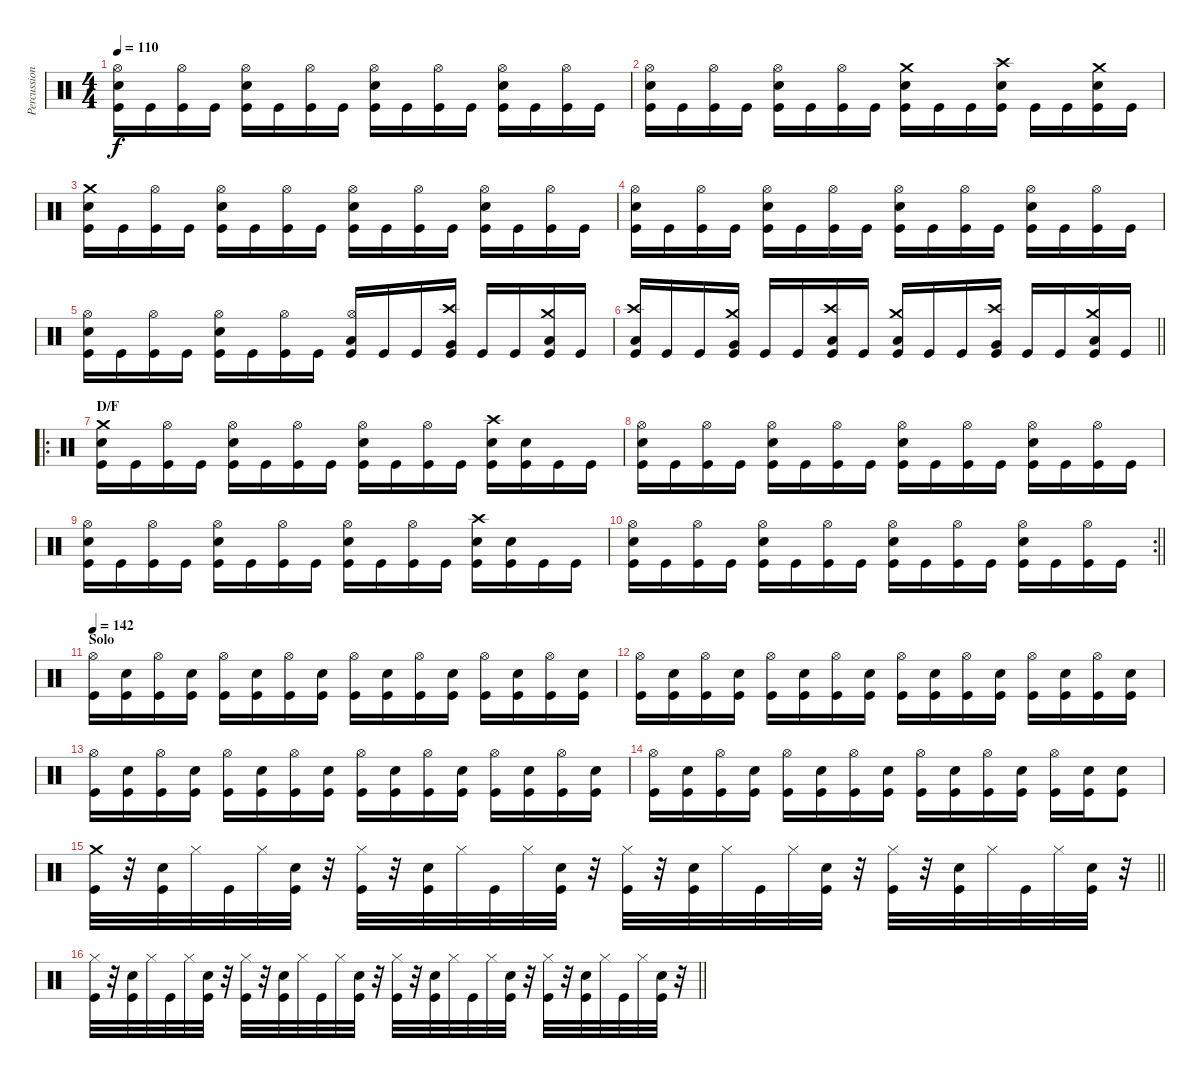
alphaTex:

\track ("Percussion" "Percussion") {instrument percussion}
\staff {score}
\articulation defaults
\ts (4 4)
\tempo 110
\clef neutral
\ks c
("Kick (hit)" "Hi-Hat (open)" "Snare (hit) 2").16{dy f} "Kick (hit)".16 ("Kick (hit)" "Hi-Hat (open)").16 "Kick (hit)".16 ("Kick (hit)" "Hi-Hat (open)" "Snare (hit) 2").16 "Kick (hit)".16 ("Kick (hit)" "Hi-Hat (open)").16 "Kick (hit)".16 ("Kick (hit)" "Hi-Hat (open)" "Snare (hit) 2").16 "Kick (hit)".16 ("Kick (hit)" "Hi-Hat (open)").16 "Kick (hit)".16 ("Kick (hit)" "Hi-Hat (open)" "Snare (hit) 2").16 "Kick (hit)".16 ("Kick (hit)" "Hi-Hat (open)").16 "Kick (hit)".16 |
("Kick (hit)" "Hi-Hat (open)" "Snare (hit) 2").16 "Kick (hit)".16 ("Kick (hit)" "Hi-Hat (open)").16 "Kick (hit)".16 ("Kick (hit)" "Hi-Hat (open)" "Snare (hit) 2").16 "Kick (hit)".16 ("Kick (hit)" "Hi-Hat (open)").16 "Kick (hit)".16 ("Kick (hit)" "Crash medium (hit)" "Snare (hit) 2").16 "Kick (hit)".16 "Kick (hit)".16 ("Kick (hit)" "Crash high (hit)" "Snare (hit) 2").16 "Kick (hit)".16 "Kick (hit)".16 ("Kick (hit)" "Crash medium (hit)" "Snare (hit) 2").16 "Kick (hit)".16 |
("Kick (hit)" "Crash medium (hit)" "Snare (hit) 2").16 "Kick (hit)".16 ("Kick (hit)" "Hi-Hat (open)").16 "Kick (hit)".16 ("Kick (hit)" "Hi-Hat (open)" "Snare (hit) 2").16 "Kick (hit)".16 ("Kick (hit)" "Hi-Hat (open)").16 "Kick (hit)".16 ("Kick (hit)" "Hi-Hat (open)" "Snare (hit) 2").16 "Kick (hit)".16 ("Kick (hit)" "Hi-Hat (open)").16 "Kick (hit)".16 ("Kick (hit)" "Hi-Hat (open)" "Snare (hit) 2").16 "Kick (hit)".16 ("Kick (hit)" "Hi-Hat (open)").16 "Kick (hit)".16 |
("Kick (hit)" "Hi-Hat (open)" "Snare (hit) 2").16 "Kick (hit)".16 ("Kick (hit)" "Hi-Hat (open)").16 "Kick (hit)".16 ("Kick (hit)" "Hi-Hat (open)" "Snare (hit) 2").16 "Kick (hit)".16 ("Kick (hit)" "Hi-Hat (open)").16 "Kick (hit)".16 ("Kick (hit)" "Hi-Hat (open)" "Snare (hit) 2").16 "Kick (hit)".16 ("Kick (hit)" "Hi-Hat (open)").16 "Kick (hit)".16 ("Kick (hit)" "Hi-Hat (open)" "Snare (hit) 2").16 "Kick (hit)".16 ("Kick (hit)" "Hi-Hat (open)").16 "Kick (hit)".16 |
("Kick (hit)" "Hi-Hat (open)" "Snare (hit) 2").16 "Kick (hit)".16 ("Kick (hit)" "Hi-Hat (open)").16 "Kick (hit)".16 ("Kick (hit)" "Hi-Hat (open)" "Snare (hit) 2").16 "Kick (hit)".16 ("Kick (hit)" "Hi-Hat (open)").16 "Kick (hit)".16 ("Kick (hit)" "Hi-Hat (open)" "Low Tom (hit)").16 "Kick (hit)".16 "Kick (hit)".16 ("Kick (hit)" "Crash high (hit)" "Very Low Tom (hit)").16 "Kick (hit)".16 "Kick (hit)".16 ("Kick (hit)" "Crash medium (hit)" "Low Floor Tom (hit)").16 "Kick (hit)".16 |
\barLineRight lightlight
("Kick (hit)" "Crash high (hit)" "Low Tom (hit)").16 "Kick (hit)".16 "Kick (hit)".16 ("Kick (hit)" "Crash medium (hit)" "Very Low Tom (hit)").16 "Kick (hit)".16 "Kick (hit)".16 ("Kick (hit)" "Crash high (hit)" "Low Floor Tom (hit)").16 "Kick (hit)".16 ("Kick (hit)" "Crash medium (hit)" "Low Tom (hit)").16 "Kick (hit)".16 "Kick (hit)".16 ("Kick (hit)" "Crash high (hit)" "Very Low Tom (hit)").16 "Kick (hit)".16 "Kick (hit)".16 ("Kick (hit)" "Crash medium (hit)" "Low Floor Tom (hit)").16 "Kick (hit)".16 |
\ro
\section ("" "D/F")
("Kick (hit)" "Crash medium (hit)" "Snare (hit) 2").16 "Kick (hit)".16 ("Kick (hit)" "Hi-Hat (open)").16 "Kick (hit)".16 ("Kick (hit)" "Hi-Hat (open)" "Snare (hit) 2").16 "Kick (hit)".16 ("Kick (hit)" "Hi-Hat (open)").16 "Kick (hit)".16 ("Kick (hit)" "Hi-Hat (open)" "Snare (hit) 2").16 "Kick (hit)".16 ("Kick (hit)" "Hi-Hat (open)").16 "Kick (hit)".16 ("Kick (hit)" "Crash high (hit)" "Snare (hit) 2").16 ("Kick (hit)" "Snare (hit) 2").16 "Kick (hit)".16 "Kick (hit)".16 |
("Kick (hit)" "Hi-Hat (open)" "Snare (hit) 2").16 "Kick (hit)".16 ("Kick (hit)" "Hi-Hat (open)").16 "Kick (hit)".16 ("Kick (hit)" "Hi-Hat (open)" "Snare (hit) 2").16 "Kick (hit)".16 ("Kick (hit)" "Hi-Hat (open)").16 "Kick (hit)".16 ("Kick (hit)" "Hi-Hat (open)" "Snare (hit) 2").16 "Kick (hit)".16 ("Kick (hit)" "Hi-Hat (open)").16 "Kick (hit)".16 ("Kick (hit)" "Hi-Hat (open)" "Snare (hit) 2").16 "Kick (hit)".16 ("Kick (hit)" "Hi-Hat (open)").16 "Kick (hit)".16 |
("Kick (hit)" "Hi-Hat (open)" "Snare (hit) 2").16 "Kick (hit)".16 ("Kick (hit)" "Hi-Hat (open)").16 "Kick (hit)".16 ("Kick (hit)" "Hi-Hat (open)" "Snare (hit) 2").16 "Kick (hit)".16 ("Kick (hit)" "Hi-Hat (open)").16 "Kick (hit)".16 ("Kick (hit)" "Hi-Hat (open)" "Snare (hit) 2").16 "Kick (hit)".16 ("Kick (hit)" "Hi-Hat (open)").16 "Kick (hit)".16 ("Kick (hit)" "Crash high (hit)" "Snare (hit) 2").16 ("Kick (hit)" "Snare (hit) 2").16 "Kick (hit)".16 "Kick (hit)".16 |
\rc 2
\barLineRight lightlight
("Kick (hit)" "Hi-Hat (open)" "Snare (hit) 2").16 "Kick (hit)".16 ("Kick (hit)" "Hi-Hat (open)").16 "Kick (hit)".16 ("Kick (hit)" "Hi-Hat (open)" "Snare (hit) 2").16 "Kick (hit)".16 ("Kick (hit)" "Hi-Hat (open)").16 "Kick (hit)".16 ("Kick (hit)" "Hi-Hat (open)" "Snare (hit) 2").16 "Kick (hit)".16 ("Kick (hit)" "Hi-Hat (open)").16 "Kick (hit)".16 ("Kick (hit)" "Hi-Hat (open)" "Snare (hit) 2").16 "Kick (hit)".16 ("Kick (hit)" "Hi-Hat (open)").16 "Kick (hit)".16 |
\section ("" "Solo")
\tempo 142
("Kick (hit)" "Hi-Hat (open)").16 ("Kick (hit)" "Snare (hit) 2").16 ("Kick (hit)" "Hi-Hat (open)").16 ("Kick (hit)" "Snare (hit) 2").16 ("Kick (hit)" "Hi-Hat (open)").16 ("Kick (hit)" "Snare (hit) 2").16 ("Kick (hit)" "Hi-Hat (open)").16 ("Kick (hit)" "Snare (hit) 2").16 ("Kick (hit)" "Hi-Hat (open)").16 ("Kick (hit)" "Snare (hit) 2").16 ("Kick (hit)" "Hi-Hat (open)").16 ("Kick (hit)" "Snare (hit) 2").16 ("Kick (hit)" "Hi-Hat (open)").16 ("Kick (hit)" "Snare (hit) 2").16 ("Kick (hit)" "Hi-Hat (open)").16 ("Kick (hit)" "Snare (hit) 2").16 |
("Kick (hit)" "Hi-Hat (open)").16 ("Kick (hit)" "Snare (hit) 2").16 ("Kick (hit)" "Hi-Hat (open)").16 ("Kick (hit)" "Snare (hit) 2").16 ("Kick (hit)" "Hi-Hat (open)").16 ("Kick (hit)" "Snare (hit) 2").16 ("Kick (hit)" "Hi-Hat (open)").16 ("Kick (hit)" "Snare (hit) 2").16 ("Kick (hit)" "Hi-Hat (open)").16 ("Kick (hit)" "Snare (hit) 2").16 ("Kick (hit)" "Hi-Hat (open)").16 ("Kick (hit)" "Snare (hit) 2").16 ("Kick (hit)" "Hi-Hat (open)").16 ("Kick (hit)" "Snare (hit) 2").16 ("Kick (hit)" "Hi-Hat (open)").16 ("Kick (hit)" "Snare (hit) 2").16 |
("Kick (hit)" "Hi-Hat (open)").16 ("Kick (hit)" "Snare (hit) 2").16 ("Kick (hit)" "Hi-Hat (open)").16 ("Kick (hit)" "Snare (hit) 2").16 ("Kick (hit)" "Hi-Hat (open)").16 ("Kick (hit)" "Snare (hit) 2").16 ("Kick (hit)" "Hi-Hat (open)").16 ("Kick (hit)" "Snare (hit) 2").16 ("Kick (hit)" "Hi-Hat (open)").16 ("Kick (hit)" "Snare (hit) 2").16 ("Kick (hit)" "Hi-Hat (open)").16 ("Kick (hit)" "Snare (hit) 2").16 ("Kick (hit)" "Hi-Hat (open)").16 ("Kick (hit)" "Snare (hit) 2").16 ("Kick (hit)" "Hi-Hat (open)").16 ("Kick (hit)" "Snare (hit) 2").16 |
("Kick (hit)" "Hi-Hat (open)").16 ("Kick (hit)" "Snare (hit) 2").16 ("Kick (hit)" "Hi-Hat (open)").16 ("Kick (hit)" "Snare (hit) 2").16 ("Kick (hit)" "Hi-Hat (open)").16 ("Kick (hit)" "Snare (hit) 2").16 ("Kick (hit)" "Hi-Hat (open)").16 ("Kick (hit)" "Snare (hit) 2").16 ("Kick (hit)" "Hi-Hat (open)").16 ("Kick (hit)" "Snare (hit) 2").16 ("Kick (hit)" "Hi-Hat (open)").16 ("Kick (hit)" "Snare (hit) 2").16 ("Kick (hit)" "Hi-Hat (open)").16 ("Kick (hit)" "Snare (hit) 2").16 ("Kick (hit)" "Snare (hit) 2").8 |
\barLineRight lightlight
("Kick (hit)" "Crash medium (hit)").32 r.32 ("Kick (hit)" "Snare (hit) 2").32 "Hi-Hat (closed)".32 "Kick (hit)".32 "Hi-Hat (closed)".32 ("Kick (hit)" "Snare (hit) 2").32 r.32 ("Kick (hit)" "Hi-Hat (closed)").32 r.32 ("Kick (hit)" "Snare (hit) 2").32 "Hi-Hat (closed)".32 "Kick (hit)".32 "Hi-Hat (closed)".32 ("Kick (hit)" "Snare (hit) 2").32 r.32 ("Kick (hit)" "Hi-Hat (closed)").32 r.32 ("Kick (hit)" "Snare (hit) 2").32 "Hi-Hat (closed)".32 "Kick (hit)".32 "Hi-Hat (closed)".32 ("Kick (hit)" "Snare (hit) 2").32 r.32 ("Kick (hit)" "Hi-Hat (closed)").32 r.32 ("Kick (hit)" "Snare (hit) 2").32 "Hi-Hat (closed)".32 "Kick (hit)".32 "Hi-Hat (closed)".32 ("Kick (hit)" "Snare (hit) 2").32 r.32 |
\barLineRight lightlight
("Kick (hit)" "Hi-Hat (closed)").32 r.32 ("Kick (hit)" "Snare (hit) 2").32 "Hi-Hat (closed)".32 "Kick (hit)".32 "Hi-Hat (closed)".32 ("Kick (hit)" "Snare (hit) 2").32 r.32 ("Kick (hit)" "Hi-Hat (closed)").32 r.32 ("Kick (hit)" "Snare (hit) 2").32 "Hi-Hat (closed)".32 "Kick (hit)".32 "Hi-Hat (closed)".32 ("Kick (hit)" "Snare (hit) 2").32 r.32 ("Kick (hit)" "Hi-Hat (closed)").32 r.32 ("Kick (hit)" "Snare (hit) 2").32 "Hi-Hat (closed)".32 "Kick (hit)".32 "Hi-Hat (closed)".32 ("Kick (hit)" "Snare (hit) 2").32 r.32 ("Kick (hit)" "Hi-Hat (closed)").32 r.32 ("Kick (hit)" "Snare (hit) 2").32 "Hi-Hat (closed)".32 "Kick (hit)".32 "Hi-Hat (closed)".32 ("Kick (hit)" "Snare (hit) 2").32 r.32
